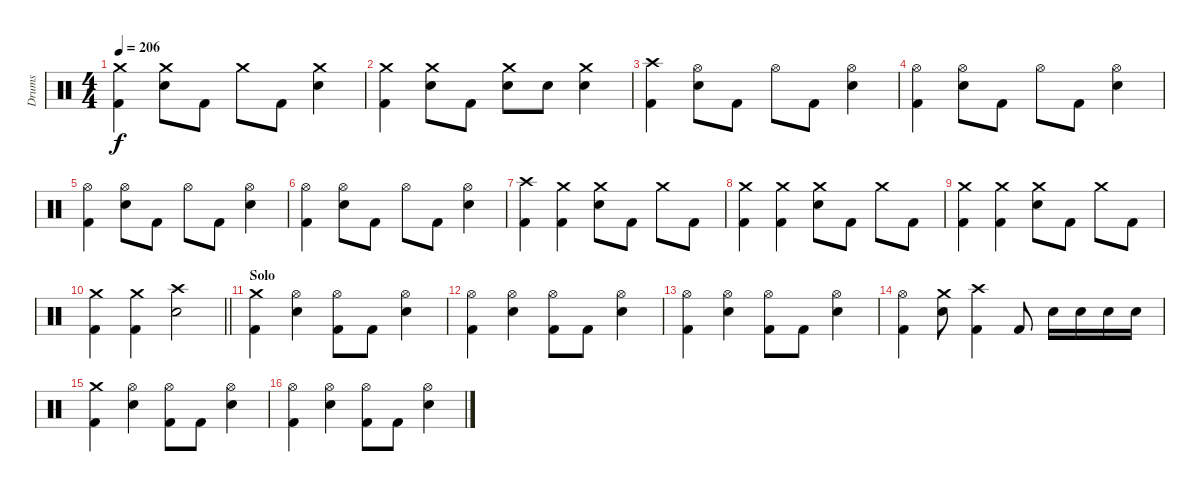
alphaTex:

\track ("Drums" "Drums") {instrument percussion}
\staff {score}
\articulation defaults
\ts (4 4)
\tempo 206
\clef neutral
\ks c
("Crash medium (hit)" "Kick (hit) 2").4{dy f} ("Crash medium (hit)" "Electric Snare (hit)").8 "Kick (hit) 2".8 "Crash medium (hit)".8 "Kick (hit) 2".8 ("Crash medium (hit)" "Electric Snare (hit)").4 |
("Crash medium (hit)" "Kick (hit) 2").4 ("Crash medium (hit)" "Electric Snare (hit)").8 "Kick (hit) 2".8 ("Crash medium (hit)" "Electric Snare (hit)").8 "Electric Snare (hit)".8 ("Crash medium (hit)" "Electric Snare (hit)").4 |
("Crash high (hit)" "Kick (hit) 2").4 ("Hi-Hat (open)" "Electric Snare (hit)").8 "Kick (hit) 2".8 "Hi-Hat (open)".8 "Kick (hit) 2".8 ("Hi-Hat (open)" "Electric Snare (hit)").4 |
("Hi-Hat (open)" "Kick (hit) 2").4 ("Hi-Hat (open)" "Electric Snare (hit)").8 "Kick (hit) 2".8 "Hi-Hat (open)".8 "Kick (hit) 2".8 ("Hi-Hat (open)" "Electric Snare (hit)").4 |
("Hi-Hat (open)" "Kick (hit) 2").4 ("Hi-Hat (open)" "Electric Snare (hit)").8 "Kick (hit) 2".8 "Hi-Hat (open)".8 "Kick (hit) 2".8 ("Hi-Hat (open)" "Electric Snare (hit)").4 |
("Hi-Hat (open)" "Kick (hit) 2").4 ("Hi-Hat (open)" "Electric Snare (hit)").8 "Kick (hit) 2".8 "Hi-Hat (open)".8 "Kick (hit) 2".8 ("Hi-Hat (open)" "Electric Snare (hit)").4 |
("Crash high (hit)" "Kick (hit) 2").4 ("Crash medium (hit)" "Kick (hit) 2").4 ("Crash medium (hit)" "Electric Snare (hit)").8 "Kick (hit) 2".8 "Crash medium (hit)".8 "Kick (hit) 2".8 |
("Crash medium (hit)" "Kick (hit) 2").4 ("Crash medium (hit)" "Kick (hit) 2").4 ("Crash medium (hit)" "Electric Snare (hit)").8 "Kick (hit) 2".8 "Crash medium (hit)".8 "Kick (hit) 2".8 |
("Crash medium (hit)" "Kick (hit) 2").4 ("Crash medium (hit)" "Kick (hit) 2").4 ("Crash medium (hit)" "Electric Snare (hit)").8 "Kick (hit) 2".8 "Crash medium (hit)".8 "Kick (hit) 2".8 |
\barLineRight lightlight
("Crash medium (hit)" "Kick (hit) 2").4 ("Crash medium (hit)" "Kick (hit) 2").4 ("Crash high (hit)" "Electric Snare (hit)").2 |
\section ("" "Solo")
("Crash medium (hit)" "Kick (hit) 2").4 ("Hi-Hat (open)" "Electric Snare (hit)").4 ("Hi-Hat (open)" "Kick (hit) 2").8 "Kick (hit) 2".8 ("Hi-Hat (open)" "Electric Snare (hit)").4 |
("Hi-Hat (open)" "Kick (hit) 2").4 ("Hi-Hat (open)" "Electric Snare (hit)").4 ("Hi-Hat (open)" "Kick (hit) 2").8 "Kick (hit) 2".8 ("Hi-Hat (open)" "Electric Snare (hit)").4 |
("Hi-Hat (open)" "Kick (hit) 2").4 ("Hi-Hat (open)" "Electric Snare (hit)").4 ("Hi-Hat (open)" "Kick (hit) 2").8 "Kick (hit) 2".8 ("Hi-Hat (open)" "Electric Snare (hit)").4 |
("Hi-Hat (open)" "Kick (hit) 2").4 ("Crash medium (hit)" "Electric Snare (hit)").8 ("Crash high (hit)" "Kick (hit) 2").4 "Kick (hit) 2".8 "Electric Snare (hit)".16 "Electric Snare (hit)".16 "Electric Snare (hit)".16 "Electric Snare (hit)".16 |
("Crash medium (hit)" "Kick (hit) 2").4 ("Hi-Hat (open)" "Electric Snare (hit)").4 ("Hi-Hat (open)" "Kick (hit) 2").8 "Kick (hit) 2".8 ("Hi-Hat (open)" "Electric Snare (hit)").4 |
("Hi-Hat (open)" "Kick (hit) 2").4 ("Hi-Hat (open)" "Electric Snare (hit)").4 ("Hi-Hat (open)" "Kick (hit) 2").8 "Kick (hit) 2".8 ("Hi-Hat (open)" "Electric Snare (hit)").4
